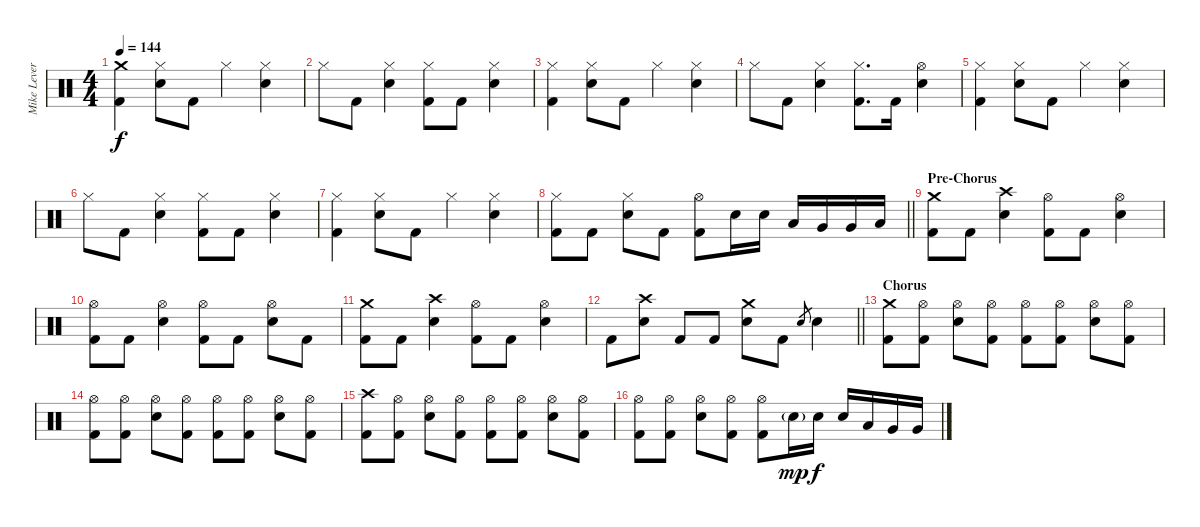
\track ("Mike Leverence - Drums" "Mike Lever") {instrument percussion}
\staff {score}
\articulation defaults
\ts (4 4)
\tempo 144
\clef neutral
\ks c
("Crash medium (hit)" "Kick (hit) 2").4{dy f} ("Hi-Hat (closed)" "Electric Snare (hit)").8 "Kick (hit) 2".8 "Hi-Hat (closed)".4 ("Hi-Hat (closed)" "Electric Snare (hit)").4 |
"Hi-Hat (closed)".8 "Kick (hit) 2".8 ("Hi-Hat (closed)" "Electric Snare (hit)").4 ("Hi-Hat (closed)" "Kick (hit) 2").8 "Kick (hit) 2".8 ("Hi-Hat (closed)" "Electric Snare (hit)").4 |
("Hi-Hat (closed)" "Kick (hit) 2").4 ("Hi-Hat (closed)" "Electric Snare (hit)").8 "Kick (hit) 2".8 "Hi-Hat (closed)".4 ("Hi-Hat (closed)" "Electric Snare (hit)").4 |
"Hi-Hat (closed)".8 "Kick (hit) 2".8 ("Hi-Hat (closed)" "Electric Snare (hit)").4 ("Hi-Hat (closed)" "Kick (hit) 2").8{d} "Kick (hit) 2".16 ("Hi-Hat (open)" "Electric Snare (hit)").4 |
("Hi-Hat (closed)" "Kick (hit) 2").4 ("Hi-Hat (closed)" "Electric Snare (hit)").8 "Kick (hit) 2".8 "Hi-Hat (closed)".4 ("Hi-Hat (closed)" "Electric Snare (hit)").4 |
"Hi-Hat (closed)".8 "Kick (hit) 2".8 ("Hi-Hat (closed)" "Electric Snare (hit)").4 ("Hi-Hat (closed)" "Kick (hit) 2").8 "Kick (hit) 2".8 ("Hi-Hat (closed)" "Electric Snare (hit)").4 |
("Hi-Hat (closed)" "Kick (hit) 2").4 ("Hi-Hat (closed)" "Electric Snare (hit)").8 "Kick (hit) 2".8 "Hi-Hat (closed)".4 ("Hi-Hat (closed)" "Electric Snare (hit)").4 |
\barLineRight lightlight
("Hi-Hat (closed)" "Kick (hit) 2").8 "Kick (hit) 2".8 ("Hi-Hat (closed)" "Electric Snare (hit)").8 "Kick (hit) 2".8 ("Hi-Hat (open)" "Kick (hit) 2").8 "Electric Snare (hit)".16 "Electric Snare (hit)".16 "Low Tom (hit)".16 "Very Low Tom (hit)".16 "Very Low Tom (hit)".16 "Low Floor Tom (hit)".16 |
\section ("" "Pre-Chorus")
("Crash medium (hit)" "Kick (hit) 2").8 "Kick (hit) 2".8 ("Crash high (hit)" "Electric Snare (hit)").4 ("Hi-Hat (open)" "Kick (hit) 2").8 "Kick (hit) 2".8 ("Hi-Hat (open)" "Electric Snare (hit)").4 |
("Hi-Hat (open)" "Kick (hit) 2").8 "Kick (hit) 2".8 ("Hi-Hat (open)" "Electric Snare (hit)").4 ("Hi-Hat (open)" "Kick (hit) 2").8 "Kick (hit) 2".8 ("Hi-Hat (open)" "Electric Snare (hit)").8 "Kick (hit) 2".8 |
("Crash medium (hit)" "Kick (hit) 2").8 "Kick (hit) 2".8 ("Crash high (hit)" "Electric Snare (hit)").4 ("Hi-Hat (open)" "Kick (hit) 2").8 "Kick (hit) 2".8 ("Hi-Hat (open)" "Electric Snare (hit)").4 |
\barLineRight lightlight "Kick (hit) 2".8
("Crash high (hit)" "Electric Snare (hit)").8 "Kick (hit) 2".8 "Kick (hit) 2".8 ("Crash medium (hit)" "Electric Snare (hit)").8 "Kick (hit) 2".8 "Electric Snare (hit)".8{gr} "Electric Snare (hit)".4 |
\section ("" "Chorus")
("Crash medium (hit)" "Kick (hit) 2").8 ("Hi-Hat (open)" "Kick (hit) 2").8 ("Hi-Hat (open)" "Electric Snare (hit)").8 ("Hi-Hat (open)" "Kick (hit) 2").8 ("Hi-Hat (open)" "Kick (hit) 2").8 ("Hi-Hat (open)" "Kick (hit) 2").8 ("Hi-Hat (open)" "Electric Snare (hit)").8 ("Hi-Hat (open)" "Kick (hit) 2").8 |
("Hi-Hat (open)" "Kick (hit) 2").8 ("Hi-Hat (open)" "Kick (hit) 2").8 ("Hi-Hat (open)" "Electric Snare (hit)").8 ("Hi-Hat (open)" "Kick (hit) 2").8 ("Hi-Hat (open)" "Kick (hit) 2").8 ("Hi-Hat (open)" "Kick (hit) 2").8 ("Hi-Hat (open)" "Electric Snare (hit)").8 ("Hi-Hat (open)" "Kick (hit) 2").8 |
("Crash high (hit)" "Kick (hit) 2").8 ("Hi-Hat (open)" "Kick (hit) 2").8 ("Hi-Hat (open)" "Electric Snare (hit)").8 ("Hi-Hat (open)" "Kick (hit) 2").8 ("Hi-Hat (open)" "Kick (hit) 2").8 ("Hi-Hat (open)" "Kick (hit) 2").8 ("Hi-Hat (open)" "Electric Snare (hit)").8 ("Hi-Hat (open)" "Kick (hit) 2").8 |
("Hi-Hat (open)" "Kick (hit) 2").8 ("Hi-Hat (open)" "Kick (hit) 2").8 ("Hi-Hat (open)" "Electric Snare (hit)").8 ("Hi-Hat (open)" "Kick (hit) 2").8 ("Hi-Hat (open)" "Kick (hit) 2").8 "Electric Snare (hit)"{g}.16{dy mp} "Electric Snare (hit)".16{dy f} "Electric Snare (hit)".16 "Low Tom (hit)".16 "Very Low Tom (hit)".16 "Very Low Tom (hit)".16
